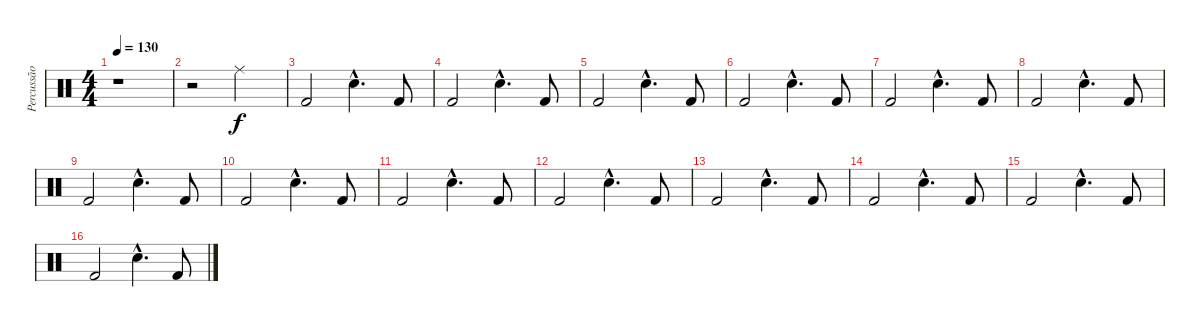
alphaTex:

\track ("Percussão" "Percussão") {instrument percussion}
\staff {score}
\articulation defaults
\ts (4 4)
\tempo 130
\clef neutral
\ks c
r.1{dy f} |
r.2 "Ride (middle)".2 |
"Kick (hit) 2".2 "Snare (hit) 2"{hac}.4{d} "Kick (hit) 2".8 |
"Kick (hit) 2".2 "Snare (hit) 2"{hac}.4{d} "Kick (hit) 2".8 |
"Kick (hit) 2".2 "Snare (hit) 2"{hac}.4{d} "Kick (hit) 2".8 |
"Kick (hit) 2".2 "Snare (hit) 2"{hac}.4{d} "Kick (hit) 2".8 |
"Kick (hit) 2".2 "Snare (hit) 2"{hac}.4{d} "Kick (hit) 2".8 |
"Kick (hit) 2".2 "Snare (hit) 2"{hac}.4{d} "Kick (hit) 2".8 |
"Kick (hit) 2".2 "Snare (hit) 2"{hac}.4{d} "Kick (hit) 2".8 |
"Kick (hit) 2".2 "Snare (hit) 2"{hac}.4{d} "Kick (hit) 2".8 |
"Kick (hit) 2".2 "Snare (hit) 2"{hac}.4{d} "Kick (hit) 2".8 |
"Kick (hit) 2".2 "Snare (hit) 2"{hac}.4{d} "Kick (hit) 2".8 |
"Kick (hit) 2".2 "Snare (hit) 2"{hac}.4{d} "Kick (hit) 2".8 |
"Kick (hit) 2".2 "Snare (hit) 2"{hac}.4{d} "Kick (hit) 2".8 |
"Kick (hit) 2".2 "Snare (hit) 2"{hac}.4{d} "Kick (hit) 2".8 |
"Kick (hit) 2".2 "Snare (hit) 2"{hac}.4{d} "Kick (hit) 2".8
